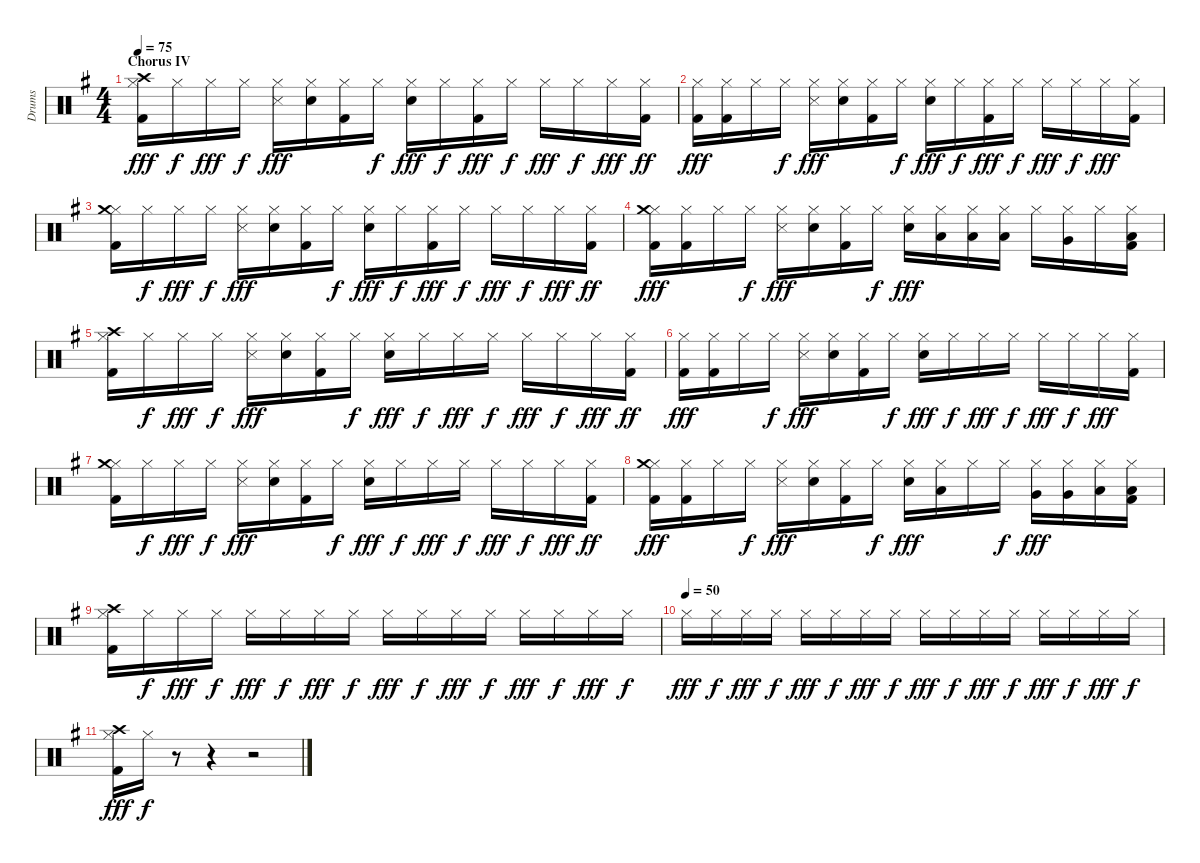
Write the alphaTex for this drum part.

\track ("Drums" "Drums") {instrument percussion}
\staff {score}
\articulation defaults
\ts (4 4)
\section ("" "Chorus IV")
\tempo 75
\clef neutral
\ks g
("Hi-Hat (closed)" "Crash high (hit)" "Kick (hit) 2").16{dy fff} "Hi-Hat (closed)".16{dy f} "Hi-Hat (closed)".16{dy fff} "Hi-Hat (closed)".16{dy f} ("Hi-Hat (closed)" "Snare (side stick) 3").16{dy fff} ("Hi-Hat (closed)" "Snare (hit) 2").16 ("Hi-Hat (closed)" "Kick (hit) 2").16 "Hi-Hat (closed)".16{dy f} ("Hi-Hat (closed)" "Snare (hit) 2").16{dy fff} "Hi-Hat (closed)".16{dy f} ("Hi-Hat (closed)" "Kick (hit) 2").16{dy fff} "Hi-Hat (closed)".16{dy f} "Hi-Hat (closed)".16{dy fff} "Hi-Hat (closed)".16{dy f} "Hi-Hat (closed)".16{dy fff} ("Hi-Hat (closed)" "Kick (hit) 2").16{dy ff} |
("Hi-Hat (closed)" "Kick (hit) 2").16{dy fff} ("Hi-Hat (closed)" "Kick (hit) 2").16 "Hi-Hat (closed)".16 "Hi-Hat (closed)".16{dy f} ("Hi-Hat (closed)" "Snare (side stick) 3").16{dy fff} ("Hi-Hat (closed)" "Snare (hit) 2").16 ("Hi-Hat (closed)" "Kick (hit) 2").16 "Hi-Hat (closed)".16{dy f} ("Hi-Hat (closed)" "Snare (hit) 2").16{dy fff} "Hi-Hat (closed)".16{dy f} ("Hi-Hat (closed)" "Kick (hit) 2").16{dy fff} "Hi-Hat (closed)".16{dy f} "Hi-Hat (closed)".16{dy fff} "Hi-Hat (closed)".16{dy f} "Hi-Hat (closed)".16{dy fff} ("Hi-Hat (closed)" "Kick (hit) 2").16 |
("Hi-Hat (closed)" "Crash medium (hit)" "Kick (hit) 2").16 "Hi-Hat (closed)".16{dy f} "Hi-Hat (closed)".16{dy fff} "Hi-Hat (closed)".16{dy f} ("Hi-Hat (closed)" "Snare (side stick) 3").16{dy fff} ("Hi-Hat (closed)" "Snare (hit) 2").16 ("Hi-Hat (closed)" "Kick (hit) 2").16 "Hi-Hat (closed)".16{dy f} ("Hi-Hat (closed)" "Snare (hit) 2").16{dy fff} "Hi-Hat (closed)".16{dy f} ("Hi-Hat (closed)" "Kick (hit) 2").16{dy fff} "Hi-Hat (closed)".16{dy f} "Hi-Hat (closed)".16{dy fff} "Hi-Hat (closed)".16{dy f} "Hi-Hat (closed)".16{dy fff} ("Hi-Hat (closed)" "Kick (hit) 2").16{dy ff} |
("Hi-Hat (closed)" "Crash medium (hit)" "Kick (hit) 2").16{dy fff} ("Hi-Hat (closed)" "Kick (hit) 2").16 "Hi-Hat (closed)".16 "Hi-Hat (closed)".16{dy f} ("Hi-Hat (closed)" "Snare (side stick) 3").16{dy fff} ("Hi-Hat (closed)" "Snare (hit) 2").16 ("Hi-Hat (closed)" "Kick (hit) 2").16 "Hi-Hat (closed)".16{dy f} ("Hi-Hat (closed)" "Snare (hit) 2").16{dy fff} ("Hi-Hat (closed)" "Low Tom (hit)").16 ("Hi-Hat (closed)" "Low Tom (hit)").16 ("Hi-Hat (closed)" "Low Tom (hit)").16 "Hi-Hat (closed)".16 ("Hi-Hat (closed)" "Very Low Tom (hit)").16 "Hi-Hat (closed)".16 ("Hi-Hat (closed)" "Low Floor Tom (hit)" "Kick (hit) 2").16 |
("Hi-Hat (closed)" "Crash high (hit)" "Kick (hit) 2").16 "Hi-Hat (closed)".16{dy f} "Hi-Hat (closed)".16{dy fff} "Hi-Hat (closed)".16{dy f} ("Hi-Hat (closed)" "Snare (side stick) 3").16{dy fff} ("Hi-Hat (closed)" "Snare (hit) 2").16 ("Hi-Hat (closed)" "Kick (hit) 2").16 "Hi-Hat (closed)".16{dy f} ("Hi-Hat (closed)" "Snare (hit) 2").16{dy fff} "Hi-Hat (closed)".16{dy f} "Hi-Hat (closed)".16{dy fff} "Hi-Hat (closed)".16{dy f} "Hi-Hat (closed)".16{dy fff} "Hi-Hat (closed)".16{dy f} "Hi-Hat (closed)".16{dy fff} ("Hi-Hat (closed)" "Kick (hit) 2").16{dy ff} |
("Hi-Hat (closed)" "Kick (hit) 2").16{dy fff} ("Hi-Hat (closed)" "Kick (hit) 2").16 "Hi-Hat (closed)".16 "Hi-Hat (closed)".16{dy f} ("Hi-Hat (closed)" "Snare (side stick) 3").16{dy fff} ("Hi-Hat (closed)" "Snare (hit) 2").16 ("Hi-Hat (closed)" "Kick (hit) 2").16 "Hi-Hat (closed)".16{dy f} ("Hi-Hat (closed)" "Snare (hit) 2").16{dy fff} "Hi-Hat (closed)".16{dy f} "Hi-Hat (closed)".16{dy fff} "Hi-Hat (closed)".16{dy f} "Hi-Hat (closed)".16{dy fff} "Hi-Hat (closed)".16{dy f} "Hi-Hat (closed)".16{dy fff} ("Hi-Hat (closed)" "Kick (hit) 2").16 |
("Hi-Hat (closed)" "Crash medium (hit)" "Kick (hit) 2").16 "Hi-Hat (closed)".16{dy f} "Hi-Hat (closed)".16{dy fff} "Hi-Hat (closed)".16{dy f} ("Hi-Hat (closed)" "Snare (side stick) 3").16{dy fff} ("Hi-Hat (closed)" "Snare (hit) 2").16 ("Hi-Hat (closed)" "Kick (hit) 2").16 "Hi-Hat (closed)".16{dy f} ("Hi-Hat (closed)" "Snare (hit) 2").16{dy fff} "Hi-Hat (closed)".16{dy f} "Hi-Hat (closed)".16{dy fff} "Hi-Hat (closed)".16{dy f} "Hi-Hat (closed)".16{dy fff} "Hi-Hat (closed)".16{dy f} "Hi-Hat (closed)".16{dy fff} ("Hi-Hat (closed)" "Kick (hit) 2").16{dy ff} |
("Hi-Hat (closed)" "Crash medium (hit)" "Kick (hit) 2").16{dy fff} ("Hi-Hat (closed)" "Kick (hit) 2").16 "Hi-Hat (closed)".16 "Hi-Hat (closed)".16{dy f} ("Hi-Hat (closed)" "Snare (side stick) 3").16{dy fff} ("Hi-Hat (closed)" "Snare (hit) 2").16 ("Hi-Hat (closed)" "Kick (hit) 2").16 "Hi-Hat (closed)".16{dy f} ("Hi-Hat (closed)" "Snare (hit) 2").16{dy fff} ("Hi-Hat (closed)" "Low Tom (hit)").16 "Hi-Hat (closed)".16 "Hi-Hat (closed)".16{dy f} ("Hi-Hat (closed)" "Very Low Tom (hit)").16{dy fff} ("Hi-Hat (closed)" "Very Low Tom (hit)").16 ("Hi-Hat (closed)" "Low Floor Tom (hit)").16 ("Hi-Hat (closed)" "Low Floor Tom (hit)" "Kick (hit) 2").16 |
("Hi-Hat (closed)" "Crash high (hit)" "Kick (hit) 2").16 "Hi-Hat (closed)".16{dy f} "Hi-Hat (closed)".16{dy fff} "Hi-Hat (closed)".16{dy f} "Hi-Hat (closed)".16{dy fff} "Hi-Hat (closed)".16{dy f} "Hi-Hat (closed)".16{dy fff} "Hi-Hat (closed)".16{dy f} "Hi-Hat (closed)".16{dy fff} "Hi-Hat (closed)".16{dy f} "Hi-Hat (closed)".16{dy fff} "Hi-Hat (closed)".16{dy f} "Hi-Hat (closed)".16{dy fff} "Hi-Hat (closed)".16{dy f} "Hi-Hat (closed)".16{dy fff} "Hi-Hat (closed)".16{dy f} |
\tempo (50)
"Hi-Hat (closed)".16{dy fff} "Hi-Hat (closed)".16{dy f} "Hi-Hat (closed)".16{dy fff} "Hi-Hat (closed)".16{dy f} "Hi-Hat (closed)".16{dy fff} "Hi-Hat (closed)".16{dy f} "Hi-Hat (closed)".16{dy fff} "Hi-Hat (closed)".16{dy f} "Hi-Hat (closed)".16{dy fff} "Hi-Hat (closed)".16{dy f} "Hi-Hat (closed)".16{dy fff} "Hi-Hat (closed)".16{dy f} "Hi-Hat (closed)".16{dy fff} "Hi-Hat (closed)".16{dy f} "Hi-Hat (closed)".16{dy fff} "Hi-Hat (closed)".16{dy f} |
("Hi-Hat (closed)" "Crash high (hit)" "Kick (hit) 2").16{dy fff} "Hi-Hat (closed)".16{dy f} r.8 r.4 r.2
